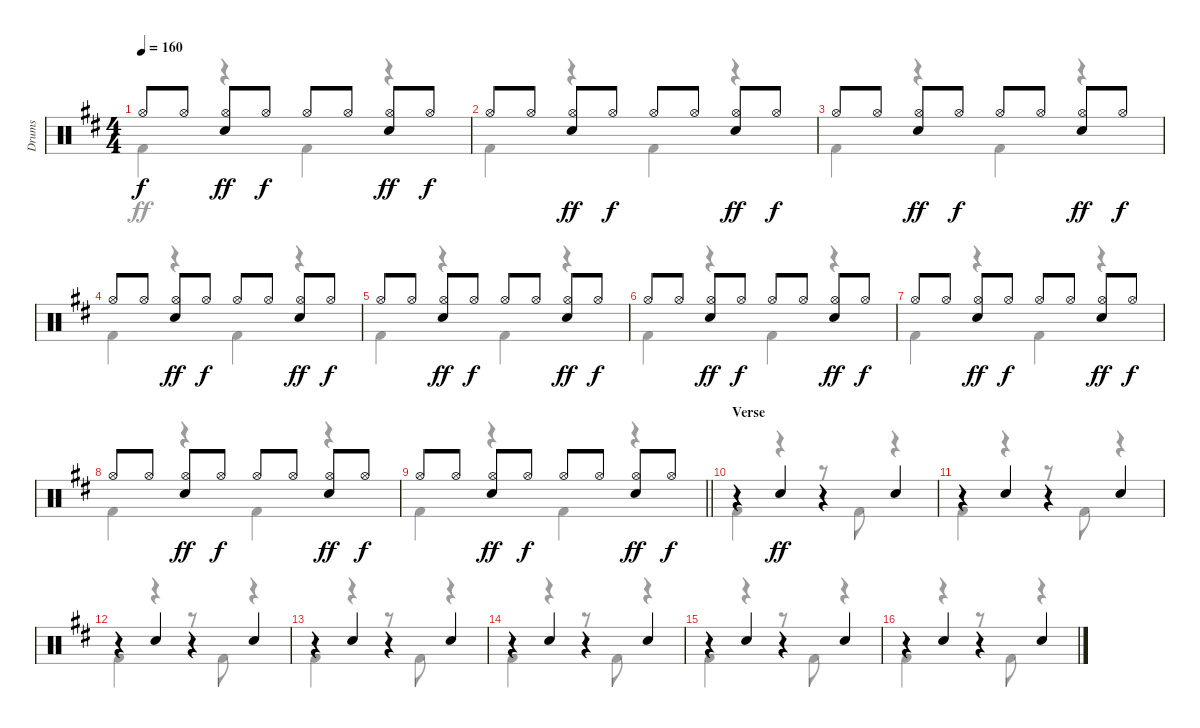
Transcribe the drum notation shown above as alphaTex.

\track ("Drums" "Drums") {instrument percussion}
\staff {score}
\articulation defaults
\voice
\ts (4 4)
\tempo 160
\clef neutral
\ks bminor "Hi-Hat (open)".8{dy f} "Hi-Hat (open)".8
("Hi-Hat (open)" "Electric Snare (hit)").8{dy ff} "Hi-Hat (open)".8{dy f} "Hi-Hat (open)".8 "Hi-Hat (open)".8 ("Hi-Hat (open)" "Electric Snare (hit)").8{dy ff} "Hi-Hat (open)".8{dy f} |
"Hi-Hat (open)".8 "Hi-Hat (open)".8 ("Hi-Hat (open)" "Electric Snare (hit)").8{dy ff} "Hi-Hat (open)".8{dy f} "Hi-Hat (open)".8 "Hi-Hat (open)".8 ("Hi-Hat (open)" "Electric Snare (hit)").8{dy ff} "Hi-Hat (open)".8{dy f} |
"Hi-Hat (open)".8 "Hi-Hat (open)".8 ("Hi-Hat (open)" "Electric Snare (hit)").8{dy ff} "Hi-Hat (open)".8{dy f} "Hi-Hat (open)".8 "Hi-Hat (open)".8 ("Hi-Hat (open)" "Electric Snare (hit)").8{dy ff} "Hi-Hat (open)".8{dy f} |
"Hi-Hat (open)".8 "Hi-Hat (open)".8 ("Hi-Hat (open)" "Electric Snare (hit)").8{dy ff} "Hi-Hat (open)".8{dy f} "Hi-Hat (open)".8 "Hi-Hat (open)".8 ("Hi-Hat (open)" "Electric Snare (hit)").8{dy ff} "Hi-Hat (open)".8{dy f} |
"Hi-Hat (open)".8 "Hi-Hat (open)".8 ("Hi-Hat (open)" "Electric Snare (hit)").8{dy ff} "Hi-Hat (open)".8{dy f} "Hi-Hat (open)".8 "Hi-Hat (open)".8 ("Hi-Hat (open)" "Electric Snare (hit)").8{dy ff} "Hi-Hat (open)".8{dy f} |
"Hi-Hat (open)".8 "Hi-Hat (open)".8 ("Hi-Hat (open)" "Electric Snare (hit)").8{dy ff} "Hi-Hat (open)".8{dy f} "Hi-Hat (open)".8 "Hi-Hat (open)".8 ("Hi-Hat (open)" "Electric Snare (hit)").8{dy ff} "Hi-Hat (open)".8{dy f} |
"Hi-Hat (open)".8 "Hi-Hat (open)".8 ("Hi-Hat (open)" "Electric Snare (hit)").8{dy ff} "Hi-Hat (open)".8{dy f} "Hi-Hat (open)".8 "Hi-Hat (open)".8 ("Hi-Hat (open)" "Electric Snare (hit)").8{dy ff} "Hi-Hat (open)".8{dy f} |
"Hi-Hat (open)".8 "Hi-Hat (open)".8 ("Hi-Hat (open)" "Electric Snare (hit)").8{dy ff} "Hi-Hat (open)".8{dy f} "Hi-Hat (open)".8 "Hi-Hat (open)".8 ("Hi-Hat (open)" "Electric Snare (hit)").8{dy ff} "Hi-Hat (open)".8{dy f} |
\barLineRight lightlight "Hi-Hat (open)".8 "Hi-Hat (open)".8
("Hi-Hat (open)" "Electric Snare (hit)").8{dy ff} "Hi-Hat (open)".8{dy f} "Hi-Hat (open)".8 "Hi-Hat (open)".8 ("Hi-Hat (open)" "Electric Snare (hit)").8{dy ff} "Hi-Hat (open)".8{dy f} |
\section ("" "Verse")
r.4 "Electric Snare (hit)".4{dy ff} r.4 "Electric Snare (hit)".4 |
r.4 "Electric Snare (hit)".4 r.4 "Electric Snare (hit)".4 |
r.4 "Electric Snare (hit)".4 r.4 "Electric Snare (hit)".4 |
r.4 "Electric Snare (hit)".4 r.4 "Electric Snare (hit)".4 |
r.4 "Electric Snare (hit)".4 r.4 "Electric Snare (hit)".4 |
r.4 "Electric Snare (hit)".4 r.4 "Electric Snare (hit)".4 |
r.4 "Electric Snare (hit)".4 r.4 "Electric Snare (hit)".4
\voice
\clef neutral
\ottava regular
\simile none
\ks bminor "Kick (hit) 2".4{dy ff}
r.4 "Kick (hit) 2".4 r.4 |
"Kick (hit) 2".4 r.4 "Kick (hit) 2".4 r.4 |
"Kick (hit) 2".4 r.4 "Kick (hit) 2".4 r.4 |
"Kick (hit) 2".4 r.4 "Kick (hit) 2".4 r.4 |
"Kick (hit) 2".4 r.4 "Kick (hit) 2".4 r.4 |
"Kick (hit) 2".4 r.4 "Kick (hit) 2".4 r.4 |
"Kick (hit) 2".4 r.4 "Kick (hit) 2".4 r.4 |
"Kick (hit) 2".4 r.4 "Kick (hit) 2".4 r.4 |
\barLineRight lightlight "Kick (hit) 2".4
r.4 "Kick (hit) 2".4 r.4 |
"Kick (hit) 2".4 r.4 r.8 "Kick (hit) 2".8 r.4 |
"Kick (hit) 2".4 r.4 r.8 "Kick (hit) 2".8 r.4 |
"Kick (hit) 2".4 r.4 r.8 "Kick (hit) 2".8 r.4 |
"Kick (hit) 2".4 r.4 r.8 "Kick (hit) 2".8 r.4 |
"Kick (hit) 2".4 r.4 r.8 "Kick (hit) 2".8 r.4 |
"Kick (hit) 2".4 r.4 r.8 "Kick (hit) 2".8 r.4 |
"Kick (hit) 2".4 r.4 r.8 "Kick (hit) 2".8 r.4
